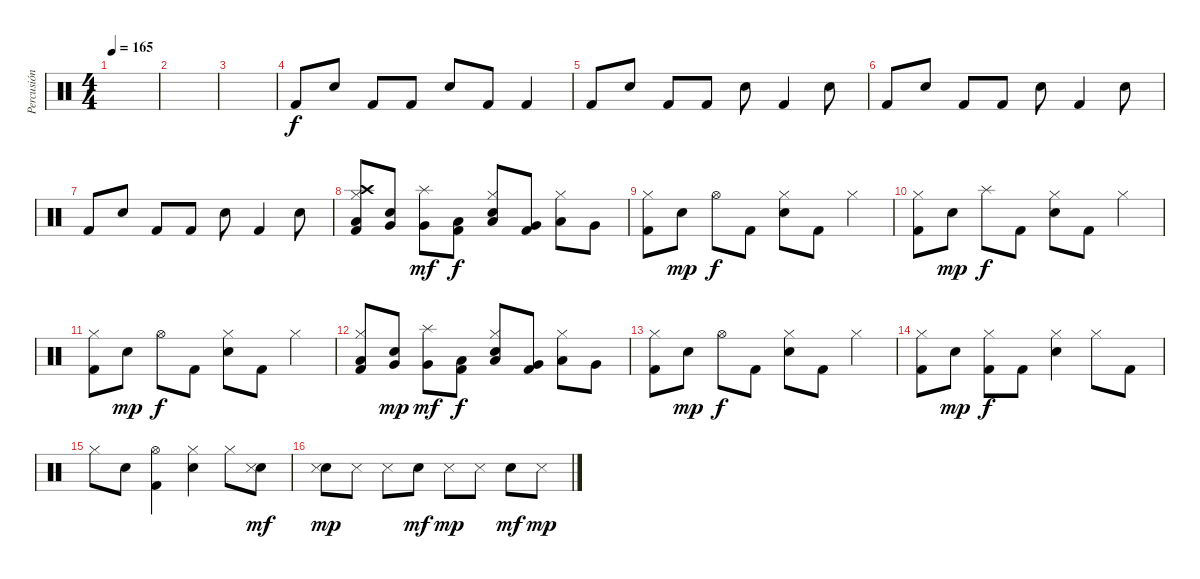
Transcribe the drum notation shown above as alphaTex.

\track ("Percusión" "Percusión") {instrument percussion}
\staff {score}
\articulation defaults
\ts (4 4)
\tempo 165
\clef neutral
\ks c
|
|
|
"Kick (hit) 2".8 "Electric Snare (hit)".8 "Kick (hit) 2".8 "Kick (hit) 2".8 "Electric Snare (hit)".8 "Kick (hit) 2".8 "Kick (hit) 2".4 |
"Kick (hit) 2".8 "Electric Snare (hit)".8 "Kick (hit) 2".8 "Kick (hit) 2".8 "Electric Snare (hit)".8 "Kick (hit) 2".4 "Electric Snare (hit)".8 |
"Kick (hit) 2".8 "Electric Snare (hit)".8 "Kick (hit) 2".8 "Kick (hit) 2".8 "Electric Snare (hit)".8 "Kick (hit) 2".4 "Electric Snare (hit)".8 |
"Kick (hit) 2".8 "Electric Snare (hit)".8 "Kick (hit) 2".8 "Kick (hit) 2".8 "Electric Snare (hit)".8 "Kick (hit) 2".4 "Electric Snare (hit)".8 |
("Crash high (hit)" "Hi-Hat (closed)" "Low Floor Tom (hit)" "Kick (hit) 2").8 ("Very Low Tom (hit)" "Electric Snare (hit)").8 ("Splash (hit)" "Very Low Tom (hit)").8{dy mf} ("Low Floor Tom (hit)" "Kick (hit) 2").8{dy f} ("Hi-Hat (closed)" "Low Floor Tom (hit)" "Electric Snare (hit)").8 ("Very Low Tom (hit)" "Kick (hit) 2").8 ("Hi-Hat (closed)" "Low Tom (hit)").8 "Very Low Tom (hit)".8 |
("Hi-Hat (closed)" "Kick (hit) 2").8 "Electric Snare (hit)".8{dy mp} "Hi-Hat (open)".8{dy f} "Kick (hit) 2".8 ("Hi-Hat (closed)" "Electric Snare (hit)").8 "Kick (hit) 2".8 "Hi-Hat (closed)".4 |
("Hi-Hat (closed)" "Kick (hit) 2").8 "Electric Snare (hit)".8{dy mp} "Splash (hit)".8{dy f} "Kick (hit) 2".8 ("Hi-Hat (closed)" "Electric Snare (hit)").8 "Kick (hit) 2".8 "Hi-Hat (closed)".4 |
("Hi-Hat (closed)" "Kick (hit) 2").8 "Electric Snare (hit)".8{dy mp} "Hi-Hat (open)".8{dy f} "Kick (hit) 2".8 ("Hi-Hat (closed)" "Electric Snare (hit)").8 "Kick (hit) 2".8 "Hi-Hat (closed)".4 |
("Hi-Hat (closed)" "Low Floor Tom (hit)" "Kick (hit) 2").8 ("Very Low Tom (hit)" "Electric Snare (hit)").8{dy mp} ("Splash (hit)" "Very Low Tom (hit)").8{dy mf} ("Low Floor Tom (hit)" "Kick (hit) 2").8{dy f} ("Hi-Hat (closed)" "Low Floor Tom (hit)" "Electric Snare (hit)").8 ("Very Low Tom (hit)" "Kick (hit) 2").8 ("Hi-Hat (closed)" "Low Tom (hit)").8 "Very Low Tom (hit)".8 |
("Hi-Hat (closed)" "Kick (hit) 2").8 "Electric Snare (hit)".8{dy mp} "Hi-Hat (open)".8{dy f} "Kick (hit) 2".8 ("Hi-Hat (closed)" "Electric Snare (hit)").8 "Kick (hit) 2".8 "Hi-Hat (closed)".4 |
("Hi-Hat (closed)" "Kick (hit) 2").8 "Electric Snare (hit)".8{dy mp} ("Hi-Hat (closed)" "Kick (hit) 2").8{dy f} "Kick (hit) 2".8 ("Hi-Hat (closed)" "Electric Snare (hit)").4 "Hi-Hat (closed)".8 "Kick (hit) 2".8 |
"Hi-Hat (closed)".8 "Electric Snare (hit)".8 ("Hi-Hat (open)" "Kick (hit) 2").4 ("Hi-Hat (closed)" "Electric Snare (hit)").4 "Hi-Hat (closed)".8 ("Electric Snare (hit)" "Snare (side stick) 3").8{dy mf} |
("Electric Snare (hit)" "Snare (side stick) 3").8{dy mp} "Snare (side stick) 3".8 "Snare (side stick) 3".8 "Electric Snare (hit)".8{dy mf} "Snare (side stick) 3".8{dy mp} "Snare (side stick) 3".8 "Electric Snare (hit)".8{dy mf} "Snare (side stick) 3".8{dy mp}
